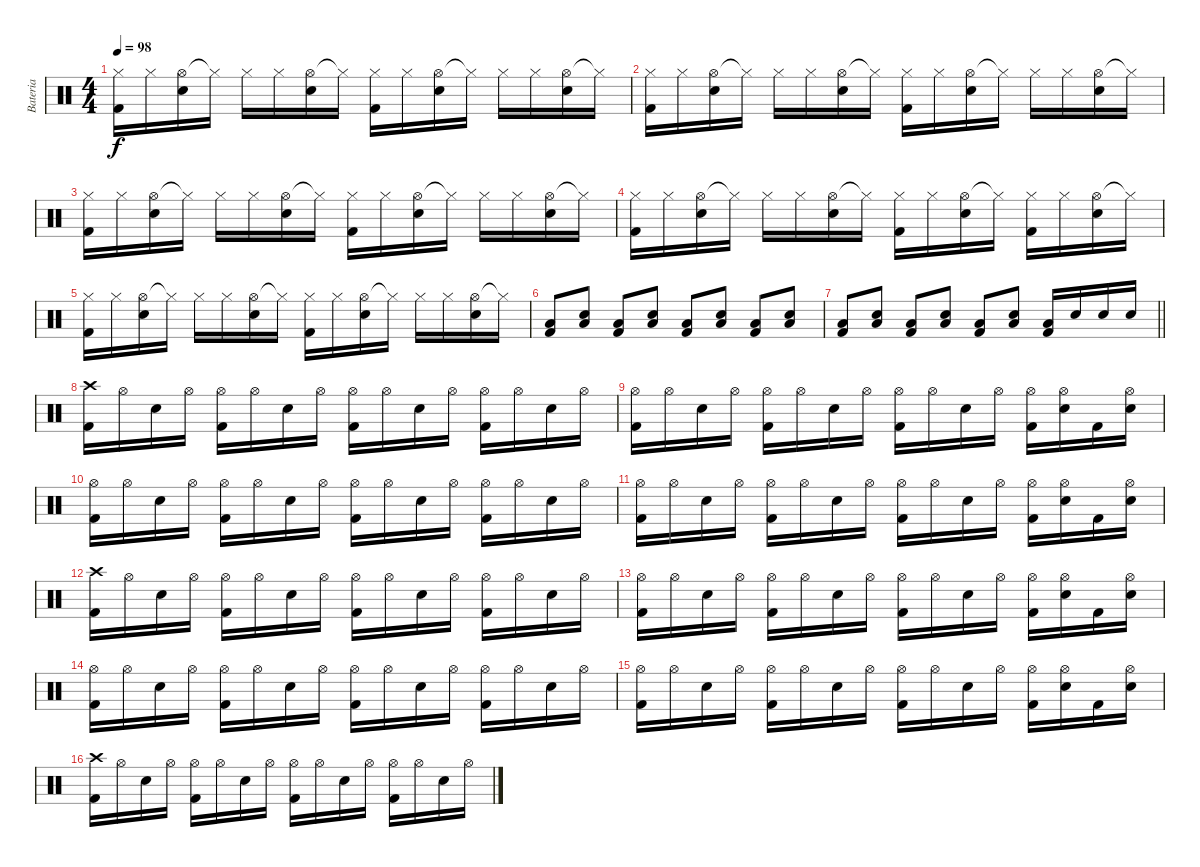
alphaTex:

\track ("Bateria" "Bateria") {instrument percussion}
\staff {score}
\articulation defaults
\ts (4 4)
\tempo 98
\clef neutral
\ks c
("Hi-Hat (closed)" "Kick (hit) 2").16{dy f} "Hi-Hat (closed)".16 ("Hi-Hat (open)" "Snare (hit) 2").16 "Hi-Hat (closed)"{t}.16 "Hi-Hat (closed)".16 "Hi-Hat (closed)".16 ("Hi-Hat (open)" "Snare (hit) 2").16 "Hi-Hat (closed)"{t}.16 ("Hi-Hat (closed)" "Kick (hit) 2").16 "Hi-Hat (closed)".16 ("Hi-Hat (open)" "Snare (hit) 2").16 "Hi-Hat (closed)"{t}.16 "Hi-Hat (closed)".16 "Hi-Hat (closed)".16 ("Hi-Hat (open)" "Snare (hit) 2").16 "Hi-Hat (closed)"{t}.16 |
("Hi-Hat (closed)" "Kick (hit) 2").16 "Hi-Hat (closed)".16 ("Hi-Hat (open)" "Snare (hit) 2").16 "Hi-Hat (closed)"{t}.16 "Hi-Hat (closed)".16 "Hi-Hat (closed)".16 ("Hi-Hat (open)" "Snare (hit) 2").16 "Hi-Hat (closed)"{t}.16 ("Hi-Hat (closed)" "Kick (hit) 2").16 "Hi-Hat (closed)".16 ("Hi-Hat (open)" "Snare (hit) 2").16 "Hi-Hat (closed)"{t}.16 "Hi-Hat (closed)".16 "Hi-Hat (closed)".16 ("Hi-Hat (open)" "Snare (hit) 2").16 "Hi-Hat (closed)"{t}.16 |
("Hi-Hat (closed)" "Kick (hit) 2").16 "Hi-Hat (closed)".16 ("Hi-Hat (open)" "Snare (hit) 2").16 "Hi-Hat (closed)"{t}.16 "Hi-Hat (closed)".16 "Hi-Hat (closed)".16 ("Hi-Hat (open)" "Snare (hit) 2").16 "Hi-Hat (closed)"{t}.16 ("Hi-Hat (closed)" "Kick (hit) 2").16 "Hi-Hat (closed)".16 ("Hi-Hat (open)" "Snare (hit) 2").16 "Hi-Hat (closed)"{t}.16 "Hi-Hat (closed)".16 "Hi-Hat (closed)".16 ("Hi-Hat (open)" "Snare (hit) 2").16 "Hi-Hat (closed)"{t}.16 |
("Hi-Hat (closed)" "Kick (hit) 2").16 "Hi-Hat (closed)".16 ("Hi-Hat (open)" "Snare (hit) 2").16 "Hi-Hat (closed)"{t}.16 "Hi-Hat (closed)".16 "Hi-Hat (closed)".16 ("Hi-Hat (open)" "Snare (hit) 2").16 "Hi-Hat (closed)"{t}.16 ("Hi-Hat (closed)" "Kick (hit) 2").16 "Hi-Hat (closed)".16 ("Hi-Hat (open)" "Snare (hit) 2").16 "Hi-Hat (closed)"{t}.16 ("Hi-Hat (closed)" "Kick (hit) 2").16 "Hi-Hat (closed)".16 ("Hi-Hat (open)" "Snare (hit) 2").16 "Hi-Hat (closed)"{t}.16 |
("Hi-Hat (closed)" "Kick (hit) 2").16 "Hi-Hat (closed)".16 ("Hi-Hat (open)" "Snare (hit) 2").16 "Hi-Hat (closed)"{t}.16 "Hi-Hat (closed)".16 "Hi-Hat (closed)".16 ("Hi-Hat (open)" "Snare (hit) 2").16 "Hi-Hat (closed)"{t}.16 ("Hi-Hat (closed)" "Kick (hit) 2").16 "Hi-Hat (closed)".16 ("Hi-Hat (open)" "Snare (hit) 2").16 "Hi-Hat (closed)"{t}.16 "Hi-Hat (closed)".16 "Hi-Hat (closed)".16 ("Hi-Hat (open)" "Snare (hit) 2").16 "Hi-Hat (closed)"{t}.16 |
("Low Floor Tom (hit)" "Kick (hit) 2").8 ("Low Floor Tom (hit)" "Snare (hit) 2").8 ("Low Floor Tom (hit)" "Kick (hit) 2").8 ("Low Floor Tom (hit)" "Snare (hit) 2").8 ("Low Floor Tom (hit)" "Kick (hit) 2").8 ("Low Floor Tom (hit)" "Snare (hit) 2").8 ("Low Floor Tom (hit)" "Kick (hit) 2").8 ("Low Floor Tom (hit)" "Snare (hit) 2").8 |
\barLineRight lightlight
("Low Floor Tom (hit)" "Kick (hit) 2").8 ("Low Floor Tom (hit)" "Snare (hit) 2").8 ("Low Floor Tom (hit)" "Kick (hit) 2").8 ("Low Floor Tom (hit)" "Snare (hit) 2").8 ("Low Floor Tom (hit)" "Kick (hit) 2").8 ("Low Floor Tom (hit)" "Snare (hit) 2").8 ("Low Floor Tom (hit)" "Kick (hit) 2").16 "Snare (hit) 2".16 "Snare (hit) 2".16 "Snare (hit) 2".16 |
("Crash high (hit)" "Kick (hit) 2").16 "Hi-Hat (open)".16 "Snare (hit) 2".16 "Hi-Hat (open)".16 ("Hi-Hat (open)" "Kick (hit) 2").16 "Hi-Hat (open)".16 "Snare (hit) 2".16 "Hi-Hat (open)".16 ("Hi-Hat (open)" "Kick (hit) 2").16 "Hi-Hat (open)".16 "Snare (hit) 2".16 "Hi-Hat (open)".16 ("Hi-Hat (open)" "Kick (hit) 2").16 "Hi-Hat (open)".16 "Snare (hit) 2".16 "Hi-Hat (open)".16 |
("Hi-Hat (open)" "Kick (hit) 2").16 "Hi-Hat (open)".16 "Snare (hit) 2".16 "Hi-Hat (open)".16 ("Hi-Hat (open)" "Kick (hit) 2").16 "Hi-Hat (open)".16 "Snare (hit) 2".16 "Hi-Hat (open)".16 ("Hi-Hat (open)" "Kick (hit) 2").16 "Hi-Hat (open)".16 "Snare (hit) 2".16 "Hi-Hat (open)".16 ("Hi-Hat (open)" "Kick (hit) 2").16 ("Hi-Hat (open)" "Snare (hit) 2").16 "Kick (hit) 2".16 ("Hi-Hat (open)" "Snare (hit) 2").16 |
("Hi-Hat (open)" "Kick (hit) 2").16 "Hi-Hat (open)".16 "Snare (hit) 2".16 "Hi-Hat (open)".16 ("Hi-Hat (open)" "Kick (hit) 2").16 "Hi-Hat (open)".16 "Snare (hit) 2".16 "Hi-Hat (open)".16 ("Hi-Hat (open)" "Kick (hit) 2").16 "Hi-Hat (open)".16 "Snare (hit) 2".16 "Hi-Hat (open)".16 ("Hi-Hat (open)" "Kick (hit) 2").16 "Hi-Hat (open)".16 "Snare (hit) 2".16 "Hi-Hat (open)".16 |
("Hi-Hat (open)" "Kick (hit) 2").16 "Hi-Hat (open)".16 "Snare (hit) 2".16 "Hi-Hat (open)".16 ("Hi-Hat (open)" "Kick (hit) 2").16 "Hi-Hat (open)".16 "Snare (hit) 2".16 "Hi-Hat (open)".16 ("Hi-Hat (open)" "Kick (hit) 2").16 "Hi-Hat (open)".16 "Snare (hit) 2".16 "Hi-Hat (open)".16 ("Hi-Hat (open)" "Kick (hit) 2").16 ("Hi-Hat (open)" "Snare (hit) 2").16 "Kick (hit) 2".16 ("Hi-Hat (open)" "Snare (hit) 2").16 |
("Crash high (hit)" "Kick (hit) 2").16 "Hi-Hat (open)".16 "Snare (hit) 2".16 "Hi-Hat (open)".16 ("Hi-Hat (open)" "Kick (hit) 2").16 "Hi-Hat (open)".16 "Snare (hit) 2".16 "Hi-Hat (open)".16 ("Hi-Hat (open)" "Kick (hit) 2").16 "Hi-Hat (open)".16 "Snare (hit) 2".16 "Hi-Hat (open)".16 ("Hi-Hat (open)" "Kick (hit) 2").16 "Hi-Hat (open)".16 "Snare (hit) 2".16 "Hi-Hat (open)".16 |
("Hi-Hat (open)" "Kick (hit) 2").16 "Hi-Hat (open)".16 "Snare (hit) 2".16 "Hi-Hat (open)".16 ("Hi-Hat (open)" "Kick (hit) 2").16 "Hi-Hat (open)".16 "Snare (hit) 2".16 "Hi-Hat (open)".16 ("Hi-Hat (open)" "Kick (hit) 2").16 "Hi-Hat (open)".16 "Snare (hit) 2".16 "Hi-Hat (open)".16 ("Hi-Hat (open)" "Kick (hit) 2").16 ("Hi-Hat (open)" "Snare (hit) 2").16 "Kick (hit) 2".16 ("Hi-Hat (open)" "Snare (hit) 2").16 |
("Hi-Hat (open)" "Kick (hit) 2").16 "Hi-Hat (open)".16 "Snare (hit) 2".16 "Hi-Hat (open)".16 ("Hi-Hat (open)" "Kick (hit) 2").16 "Hi-Hat (open)".16 "Snare (hit) 2".16 "Hi-Hat (open)".16 ("Hi-Hat (open)" "Kick (hit) 2").16 "Hi-Hat (open)".16 "Snare (hit) 2".16 "Hi-Hat (open)".16 ("Hi-Hat (open)" "Kick (hit) 2").16 "Hi-Hat (open)".16 "Snare (hit) 2".16 "Hi-Hat (open)".16 |
("Hi-Hat (open)" "Kick (hit) 2").16 "Hi-Hat (open)".16 "Snare (hit) 2".16 "Hi-Hat (open)".16 ("Hi-Hat (open)" "Kick (hit) 2").16 "Hi-Hat (open)".16 "Snare (hit) 2".16 "Hi-Hat (open)".16 ("Hi-Hat (open)" "Kick (hit) 2").16 "Hi-Hat (open)".16 "Snare (hit) 2".16 "Hi-Hat (open)".16 ("Hi-Hat (open)" "Kick (hit) 2").16 ("Hi-Hat (open)" "Snare (hit) 2").16 "Kick (hit) 2".16 ("Hi-Hat (open)" "Snare (hit) 2").16 |
("Crash high (hit)" "Kick (hit) 2").16 "Hi-Hat (open)".16 "Snare (hit) 2".16 "Hi-Hat (open)".16 ("Hi-Hat (open)" "Kick (hit) 2").16 "Hi-Hat (open)".16 "Snare (hit) 2".16 "Hi-Hat (open)".16 ("Hi-Hat (open)" "Kick (hit) 2").16 "Hi-Hat (open)".16 "Snare (hit) 2".16 "Hi-Hat (open)".16 ("Hi-Hat (open)" "Kick (hit) 2").16 "Hi-Hat (open)".16 "Snare (hit) 2".16 "Hi-Hat (open)".16
